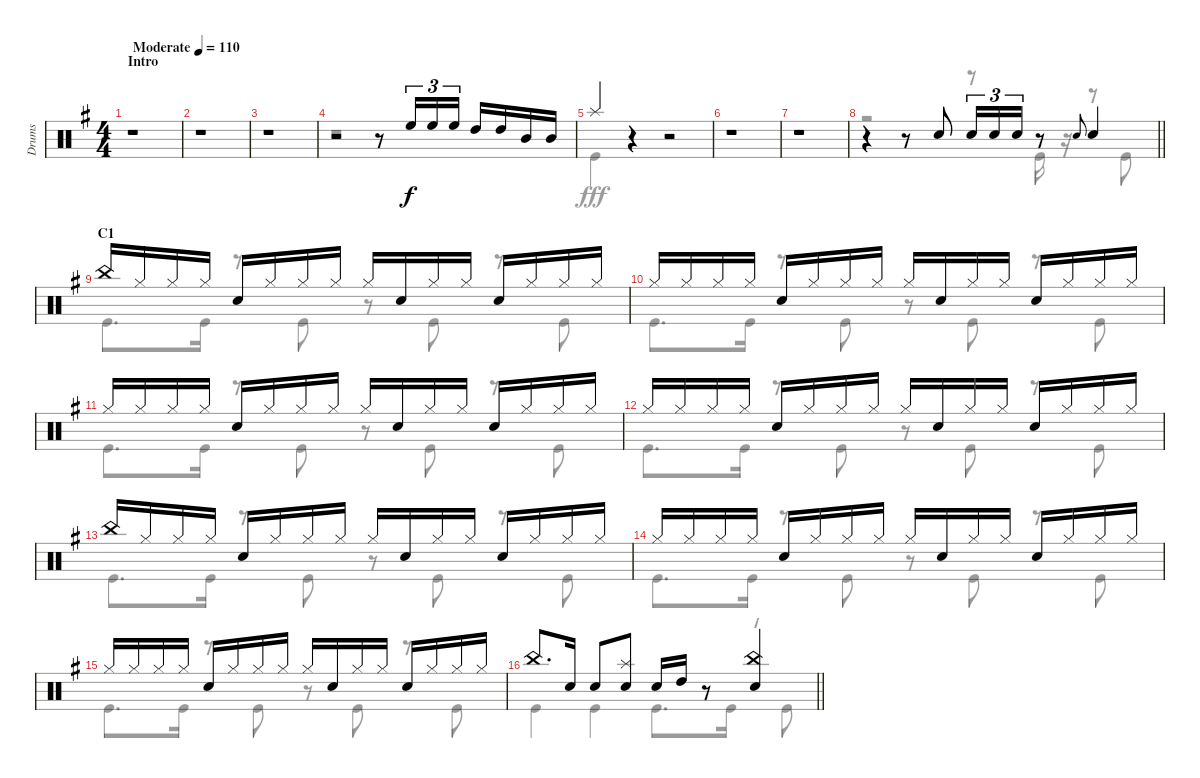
\track ("Drums" "Drums") {instrument percussion}
\staff {score}
\articulation defaults
\voice
\ts (4 4)
\section ("" "Intro")
\tempo (110 "Moderate")
\clef neutral
\ks g
r.1{dy f} |
r.1 |
r.1 |
r.2 r.8 "High Floor Tom (hit)".16{tu (3 2)} "High Floor Tom (hit)".16{tu (3 2)} "High Floor Tom (hit)".16{tu (3 2)} "High Tom (hit)".16 "High Tom (hit)".16 "Mid Tom (hit)".16 "Mid Tom (hit)".16 |
"Splash (hit)".4 r.4 r.2 |
r.1 |
r.1 |
\barLineRight lightlight
r.4 r.8 "Snare (hit) 2".8 "Snare (hit) 2".16{tu (3 2)} "Snare (hit) 2".16{tu (3 2)} "Snare (hit) 2".16{tu (3 2)} r.8 "Snare (hit) 2".8{gr onbeat} "Snare (hit) 2".4 |
\section ("" "C1")
"China (hit)".16 "Hi-Hat (closed)".16 "Hi-Hat (closed)".16 "Hi-Hat (closed)".16 "Snare (hit) 2".16 "Hi-Hat (closed)".16 "Hi-Hat (closed)".16 "Hi-Hat (closed)".16 "Hi-Hat (closed)".16 "Snare (hit) 2".16 "Hi-Hat (closed)".16 "Hi-Hat (closed)".16 "Snare (hit) 2".16 "Hi-Hat (closed)".16 "Hi-Hat (closed)".16 "Hi-Hat (closed)".16 |
"Hi-Hat (closed)".16 "Hi-Hat (closed)".16 "Hi-Hat (closed)".16 "Hi-Hat (closed)".16 "Snare (hit) 2".16 "Hi-Hat (closed)".16 "Hi-Hat (closed)".16 "Hi-Hat (closed)".16 "Hi-Hat (closed)".16 "Snare (hit) 2".16 "Hi-Hat (closed)".16 "Hi-Hat (closed)".16 "Snare (hit) 2".16 "Hi-Hat (closed)".16 "Hi-Hat (closed)".16 "Hi-Hat (closed)".16 |
"Hi-Hat (closed)".16 "Hi-Hat (closed)".16 "Hi-Hat (closed)".16 "Hi-Hat (closed)".16 "Snare (hit) 2".16 "Hi-Hat (closed)".16 "Hi-Hat (closed)".16 "Hi-Hat (closed)".16 "Hi-Hat (closed)".16 "Snare (hit) 2".16 "Hi-Hat (closed)".16 "Hi-Hat (closed)".16 "Snare (hit) 2".16 "Hi-Hat (closed)".16 "Hi-Hat (closed)".16 "Hi-Hat (closed)".16 |
"Hi-Hat (closed)".16 "Hi-Hat (closed)".16 "Hi-Hat (closed)".16 "Hi-Hat (closed)".16 "Snare (hit) 2".16 "Hi-Hat (closed)".16 "Hi-Hat (closed)".16 "Hi-Hat (closed)".16 "Hi-Hat (closed)".16 "Snare (hit) 2".16 "Hi-Hat (closed)".16 "Hi-Hat (closed)".16 "Snare (hit) 2".16 "Hi-Hat (closed)".16 "Hi-Hat (closed)".16 "Hi-Hat (closed)".16 |
"China (hit)".16 "Hi-Hat (closed)".16 "Hi-Hat (closed)".16 "Hi-Hat (closed)".16 "Snare (hit) 2".16 "Hi-Hat (closed)".16 "Hi-Hat (closed)".16 "Hi-Hat (closed)".16 "Hi-Hat (closed)".16 "Snare (hit) 2".16 "Hi-Hat (closed)".16 "Hi-Hat (closed)".16 "Snare (hit) 2".16 "Hi-Hat (closed)".16 "Hi-Hat (closed)".16 "Hi-Hat (closed)".16 |
"Hi-Hat (closed)".16 "Hi-Hat (closed)".16 "Hi-Hat (closed)".16 "Hi-Hat (closed)".16 "Snare (hit) 2".16 "Hi-Hat (closed)".16 "Hi-Hat (closed)".16 "Hi-Hat (closed)".16 "Hi-Hat (closed)".16 "Snare (hit) 2".16 "Hi-Hat (closed)".16 "Hi-Hat (closed)".16 "Snare (hit) 2".16 "Hi-Hat (closed)".16 "Hi-Hat (closed)".16 "Hi-Hat (closed)".16 |
"Hi-Hat (closed)".16 "Hi-Hat (closed)".16 "Hi-Hat (closed)".16 "Hi-Hat (closed)".16 "Snare (hit) 2".16 "Hi-Hat (closed)".16 "Hi-Hat (closed)".16 "Hi-Hat (closed)".16 "Hi-Hat (closed)".16 "Snare (hit) 2".16 "Hi-Hat (closed)".16 "Hi-Hat (closed)".16 "Snare (hit) 2".16 "Hi-Hat (closed)".16 "Hi-Hat (closed)".16 "Hi-Hat (closed)".16 |
\barLineRight lightlight "China (hit)".8{d} "Snare (hit) 2".16 "Snare (hit) 2".8
("Splash (hit)" "Snare (hit) 2").8 "Snare (hit) 2".16 "High Tom (hit)".16 r.8 ("China (hit)" "Snare (hit) 2").4
\voice
\clef neutral
\ottava regular
\simile none
\ks g
r.1{dy fff} |
r.1 |
r.1 |
r.1 |
"Kick (hit)".4 r.4 r.2 |
r.1 |
r.1 |
\barLineRight lightlight
r.2 r.8 "Kick (hit)".16 r.16 r.8 "Kick (hit)".8 |
"Kick (hit)".8{d} "Kick (hit)".16 r.8 "Kick (hit)".8 r.8 "Kick (hit)".8 r.8 "Kick (hit)".8 |
"Kick (hit)".8{d} "Kick (hit)".16 r.8 "Kick (hit)".8 r.8 "Kick (hit)".8 r.8 "Kick (hit)".8 |
"Kick (hit)".8{d} "Kick (hit)".16 r.8 "Kick (hit)".8 r.8 "Kick (hit)".8 r.8 "Kick (hit)".8 |
"Kick (hit)".8{d} "Kick (hit)".16 r.8 "Kick (hit)".8 r.8 "Kick (hit)".8 r.8 "Kick (hit)".8 |
"Kick (hit)".8{d} "Kick (hit)".16 r.8 "Kick (hit)".8 r.8 "Kick (hit)".8 r.8 "Kick (hit)".8 |
"Kick (hit)".8{d} "Kick (hit)".16 r.8 "Kick (hit)".8 r.8 "Kick (hit)".8 r.8 "Kick (hit)".8 |
"Kick (hit)".8{d} "Kick (hit)".16 r.8 "Kick (hit)".8 r.8 "Kick (hit)".8 r.8 "Kick (hit)".8 |
\barLineRight lightlight "Kick (hit)".4 "Kick (hit)".4 "Kick (hit)".8{d} "Kick (hit)".16
r.8 "Kick (hit)".8
